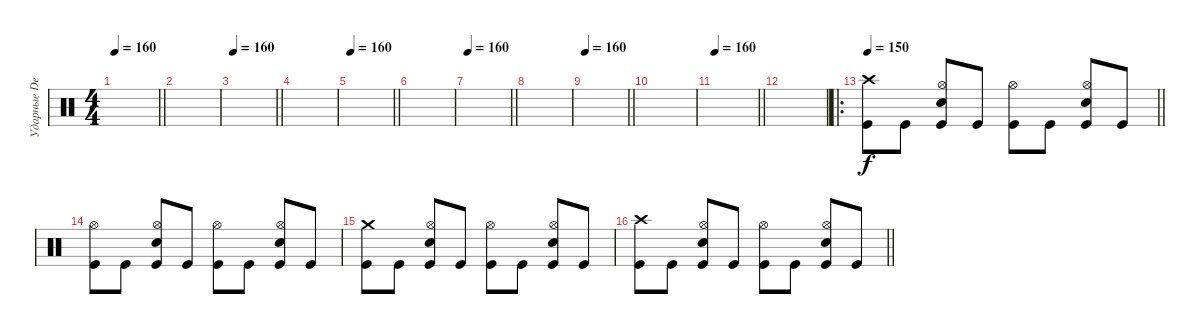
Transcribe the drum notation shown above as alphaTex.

\track ("Ударные Den" "Ударные De") {instrument percussion}
\staff {score}
\articulation defaults
\ts (4 4)
\tempo 160
\clef neutral
\barLineRight lightlight
\ks c
|
|
\tempo 160
\barLineRight lightlight
|
|
\tempo 160
\barLineRight lightlight
|
|
\tempo 160
\barLineRight lightlight
|
|
\tempo 160
\barLineRight lightlight
|
|
\tempo 160
\barLineRight lightlight
|
|
\ro
\tempo 150
\barLineRight lightlight
("Crash high (hit)" "Kick (hit)").8 "Kick (hit)".8 ("Hi-Hat (open)" "Electric Snare (hit)" "Kick (hit)").8 "Kick (hit)".8 ("Hi-Hat (open)" "Kick (hit)").8 "Kick (hit)".8 ("Hi-Hat (open)" "Electric Snare (hit)" "Kick (hit)").8 "Kick (hit)".8 |
("Hi-Hat (open)" "Kick (hit)").8 "Kick (hit)".8 ("Hi-Hat (open)" "Electric Snare (hit)" "Kick (hit)").8 "Kick (hit)".8 ("Hi-Hat (open)" "Kick (hit)").8 "Kick (hit)".8 ("Hi-Hat (open)" "Electric Snare (hit)" "Kick (hit)").8 "Kick (hit)".8 |
("Crash medium (hit)" "Kick (hit)").8 "Kick (hit)".8 ("Hi-Hat (open)" "Electric Snare (hit)" "Kick (hit)").8 "Kick (hit)".8 ("Hi-Hat (open)" "Kick (hit)").8 "Kick (hit)".8 ("Hi-Hat (open)" "Electric Snare (hit)" "Kick (hit)").8 "Kick (hit)".8 |
\barLineRight lightlight
("Crash high (hit)" "Kick (hit)").8 "Kick (hit)".8 ("Hi-Hat (open)" "Electric Snare (hit)" "Kick (hit)").8 "Kick (hit)".8 ("Hi-Hat (open)" "Kick (hit)").8 "Kick (hit)".8 ("Hi-Hat (open)" "Electric Snare (hit)" "Kick (hit)").8 "Kick (hit)".8
